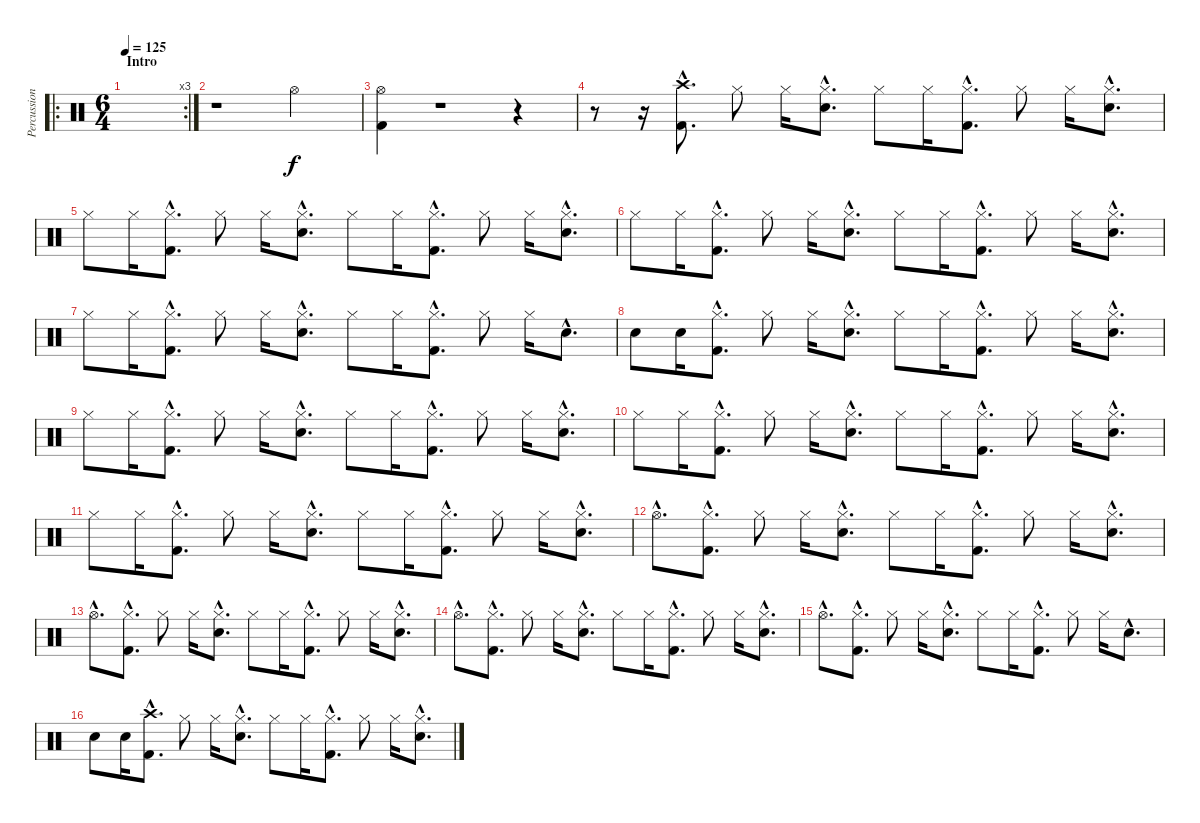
\track ("Percussions" "Percussion") {instrument percussion}
\staff {score}
\articulation defaults
\ro
\rc 3
\ts (6 4)
\section ("" "Intro")
\tempo 125
\clef neutral
\ks c
|
r.1{volume 0} "Hi-Hat (open)".2{volume 13} |
("Hi-Hat (open)" "Kick (hit) 2").4 r.1 r.4 |
r.8 r.16 ("Crash high (hit)"{hac} "Kick (hit) 2"{hac}).8{d} "Hi-Hat (closed)".8 "Hi-Hat (closed)".16 ("Hi-Hat (closed)"{hac} "Electric Snare (hit)"{hac}).8{d} "Hi-Hat (closed)".8 "Hi-Hat (closed)".16 ("Hi-Hat (closed)"{hac} "Kick (hit) 2"{hac}).8{d} "Hi-Hat (closed)".8 "Hi-Hat (closed)".16 ("Hi-Hat (closed)"{hac} "Electric Snare (hit)"{hac}).8{d} |
"Hi-Hat (closed)".8 "Hi-Hat (closed)".16 ("Hi-Hat (closed)"{hac} "Kick (hit) 2"{hac}).8{d} "Hi-Hat (closed)".8 "Hi-Hat (closed)".16 ("Hi-Hat (closed)"{hac} "Electric Snare (hit)"{hac}).8{d} "Hi-Hat (closed)".8 "Hi-Hat (closed)".16 ("Hi-Hat (closed)"{hac} "Kick (hit) 2"{hac}).8{d} "Hi-Hat (closed)".8 "Hi-Hat (closed)".16 ("Hi-Hat (closed)"{hac} "Electric Snare (hit)"{hac}).8{d} |
"Hi-Hat (closed)".8 "Hi-Hat (closed)".16 ("Hi-Hat (closed)"{hac} "Kick (hit) 2"{hac}).8{d} "Hi-Hat (closed)".8 "Hi-Hat (closed)".16 ("Hi-Hat (closed)"{hac} "Electric Snare (hit)"{hac}).8{d} "Hi-Hat (closed)".8 "Hi-Hat (closed)".16 ("Hi-Hat (closed)"{hac} "Kick (hit) 2"{hac}).8{d} "Hi-Hat (closed)".8 "Hi-Hat (closed)".16 ("Hi-Hat (closed)"{hac} "Electric Snare (hit)"{hac}).8{d} |
"Hi-Hat (closed)".8 "Hi-Hat (closed)".16 ("Hi-Hat (closed)"{hac} "Kick (hit) 2"{hac}).8{d} "Hi-Hat (closed)".8 "Hi-Hat (closed)".16 ("Hi-Hat (closed)"{hac} "Electric Snare (hit)"{hac}).8{d} "Hi-Hat (closed)".8 "Hi-Hat (closed)".16 ("Hi-Hat (closed)"{hac} "Kick (hit) 2"{hac}).8{d} "Hi-Hat (closed)".8 "Hi-Hat (closed)".16 "Electric Snare (hit)"{hac}.8{d} |
"Electric Snare (hit)".8 "Electric Snare (hit)".16 ("Hi-Hat (closed)"{hac} "Kick (hit) 2"{hac}).8{d} "Hi-Hat (closed)".8 "Hi-Hat (closed)".16 ("Hi-Hat (closed)"{hac} "Electric Snare (hit)"{hac}).8{d} "Hi-Hat (closed)".8 "Hi-Hat (closed)".16 ("Hi-Hat (closed)"{hac} "Kick (hit) 2"{hac}).8{d} "Hi-Hat (closed)".8 "Hi-Hat (closed)".16 ("Hi-Hat (closed)"{hac} "Electric Snare (hit)"{hac}).8{d} |
"Hi-Hat (closed)".8 "Hi-Hat (closed)".16 ("Hi-Hat (closed)"{hac} "Kick (hit) 2"{hac}).8{d} "Hi-Hat (closed)".8 "Hi-Hat (closed)".16 ("Hi-Hat (closed)"{hac} "Electric Snare (hit)"{hac}).8{d} "Hi-Hat (closed)".8 "Hi-Hat (closed)".16 ("Hi-Hat (closed)"{hac} "Kick (hit) 2"{hac}).8{d} "Hi-Hat (closed)".8 "Hi-Hat (closed)".16 ("Hi-Hat (closed)"{hac} "Electric Snare (hit)"{hac}).8{d} |
"Hi-Hat (closed)".8 "Hi-Hat (closed)".16 ("Hi-Hat (closed)"{hac} "Kick (hit) 2"{hac}).8{d} "Hi-Hat (closed)".8 "Hi-Hat (closed)".16 ("Hi-Hat (closed)"{hac} "Electric Snare (hit)"{hac}).8{d} "Hi-Hat (closed)".8 "Hi-Hat (closed)".16 ("Hi-Hat (closed)"{hac} "Kick (hit) 2"{hac}).8{d} "Hi-Hat (closed)".8 "Hi-Hat (closed)".16 ("Hi-Hat (closed)"{hac} "Electric Snare (hit)"{hac}).8{d} |
"Hi-Hat (closed)".8 "Hi-Hat (closed)".16 ("Hi-Hat (closed)"{hac} "Kick (hit) 2"{hac}).8{d} "Hi-Hat (closed)".8 "Hi-Hat (closed)".16 ("Hi-Hat (closed)"{hac} "Electric Snare (hit)"{hac}).8{d} "Hi-Hat (closed)".8 "Hi-Hat (closed)".16 ("Hi-Hat (closed)"{hac} "Kick (hit) 2"{hac}).8{d} "Hi-Hat (closed)".8 "Hi-Hat (closed)".16 ("Hi-Hat (closed)"{hac} "Electric Snare (hit)"{hac}).8{d} |
"Hi-Hat (open)"{hac}.8{d} ("Hi-Hat (closed)"{hac} "Kick (hit) 2"{hac}).8{d} "Hi-Hat (closed)".8 "Hi-Hat (closed)".16 ("Hi-Hat (closed)"{hac} "Electric Snare (hit)"{hac}).8{d} "Hi-Hat (closed)".8 "Hi-Hat (closed)".16 ("Hi-Hat (closed)"{hac} "Kick (hit) 2"{hac}).8{d} "Hi-Hat (closed)".8 "Hi-Hat (closed)".16 ("Hi-Hat (closed)"{hac} "Electric Snare (hit)"{hac}).8{d} |
"Hi-Hat (open)"{hac}.8{d} ("Hi-Hat (closed)"{hac} "Kick (hit) 2"{hac}).8{d} "Hi-Hat (closed)".8 "Hi-Hat (closed)".16 ("Hi-Hat (closed)"{hac} "Electric Snare (hit)"{hac}).8{d} "Hi-Hat (closed)".8 "Hi-Hat (closed)".16 ("Hi-Hat (closed)"{hac} "Kick (hit) 2"{hac}).8{d} "Hi-Hat (closed)".8 "Hi-Hat (closed)".16 ("Hi-Hat (closed)"{hac} "Electric Snare (hit)"{hac}).8{d} |
"Hi-Hat (open)"{hac}.8{d} ("Hi-Hat (closed)"{hac} "Kick (hit) 2"{hac}).8{d} "Hi-Hat (closed)".8 "Hi-Hat (closed)".16 ("Hi-Hat (closed)"{hac} "Electric Snare (hit)"{hac}).8{d} "Hi-Hat (closed)".8 "Hi-Hat (closed)".16 ("Hi-Hat (closed)"{hac} "Kick (hit) 2"{hac}).8{d} "Hi-Hat (closed)".8 "Hi-Hat (closed)".16 ("Hi-Hat (closed)"{hac} "Electric Snare (hit)"{hac}).8{d} |
"Hi-Hat (open)"{hac}.8{d} ("Hi-Hat (closed)"{hac} "Kick (hit) 2"{hac}).8{d} "Hi-Hat (closed)".8 "Hi-Hat (closed)".16 ("Hi-Hat (closed)"{hac} "Electric Snare (hit)"{hac}).8{d} "Hi-Hat (closed)".8 "Hi-Hat (closed)".16 ("Hi-Hat (closed)"{hac} "Kick (hit) 2"{hac}).8{d} "Hi-Hat (closed)".8 "Hi-Hat (closed)".16 "Electric Snare (hit)"{hac}.8{d} |
"Electric Snare (hit)".8 "Electric Snare (hit)".16 ("Crash high (hit)"{hac} "Kick (hit) 2"{hac}).8{d} "Hi-Hat (closed)".8 "Hi-Hat (closed)".16 ("Hi-Hat (closed)"{hac} "Electric Snare (hit)"{hac}).8{d} "Hi-Hat (closed)".8 "Hi-Hat (closed)".16 ("Hi-Hat (closed)"{hac} "Kick (hit) 2"{hac}).8{d} "Hi-Hat (closed)".8 "Hi-Hat (closed)".16 ("Hi-Hat (closed)"{hac} "Electric Snare (hit)"{hac}).8{d}
